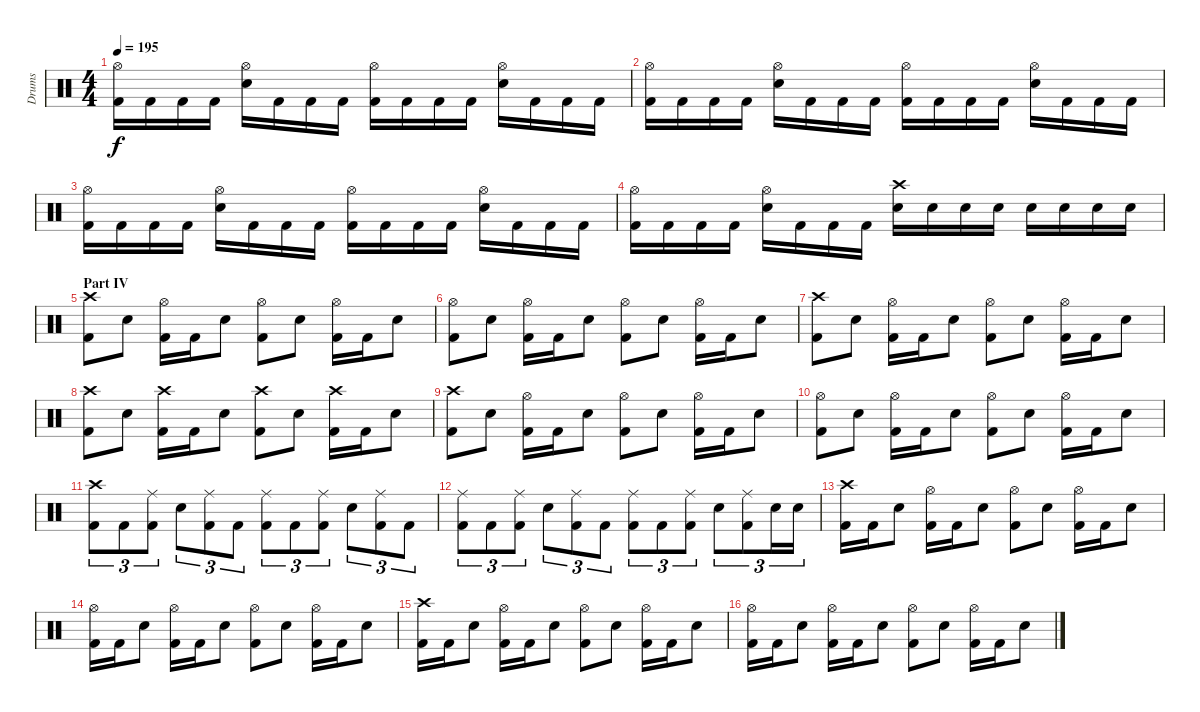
\track ("Drums" "Drums") {instrument percussion}
\staff {score}
\articulation defaults
\ts (4 4)
\tempo 195
\clef neutral
\ks c
("Hi-Hat (open)" "Kick (hit) 2").16{dy f} "Kick (hit) 2".16 "Kick (hit) 2".16 "Kick (hit) 2".16 ("Hi-Hat (open)" "Snare (hit) 2").16 "Kick (hit) 2".16 "Kick (hit) 2".16 "Kick (hit) 2".16 ("Hi-Hat (open)" "Kick (hit) 2").16 "Kick (hit) 2".16 "Kick (hit) 2".16 "Kick (hit) 2".16 ("Hi-Hat (open)" "Snare (hit) 2").16 "Kick (hit) 2".16 "Kick (hit) 2".16 "Kick (hit) 2".16 |
("Hi-Hat (open)" "Kick (hit) 2").16 "Kick (hit) 2".16 "Kick (hit) 2".16 "Kick (hit) 2".16 ("Hi-Hat (open)" "Snare (hit) 2").16 "Kick (hit) 2".16 "Kick (hit) 2".16 "Kick (hit) 2".16 ("Hi-Hat (open)" "Kick (hit) 2").16 "Kick (hit) 2".16 "Kick (hit) 2".16 "Kick (hit) 2".16 ("Hi-Hat (open)" "Snare (hit) 2").16 "Kick (hit) 2".16 "Kick (hit) 2".16 "Kick (hit) 2".16 |
("Hi-Hat (open)" "Kick (hit) 2").16 "Kick (hit) 2".16 "Kick (hit) 2".16 "Kick (hit) 2".16 ("Hi-Hat (open)" "Snare (hit) 2").16 "Kick (hit) 2".16 "Kick (hit) 2".16 "Kick (hit) 2".16 ("Hi-Hat (open)" "Kick (hit) 2").16 "Kick (hit) 2".16 "Kick (hit) 2".16 "Kick (hit) 2".16 ("Hi-Hat (open)" "Snare (hit) 2").16 "Kick (hit) 2".16 "Kick (hit) 2".16 "Kick (hit) 2".16 |
("Hi-Hat (open)" "Kick (hit) 2").16 "Kick (hit) 2".16 "Kick (hit) 2".16 "Kick (hit) 2".16 ("Hi-Hat (open)" "Snare (hit) 2").16 "Kick (hit) 2".16 "Kick (hit) 2".16 "Kick (hit) 2".16 ("Crash high (hit)" "Snare (hit) 2").16 "Snare (hit) 2".16 "Snare (hit) 2".16 "Snare (hit) 2".16 "Snare (hit) 2".16 "Snare (hit) 2".16 "Snare (hit) 2".16 "Snare (hit) 2".16 |
\section ("" "Part IV")
("Crash high (hit)" "Kick (hit) 2").8 "Snare (hit) 2".8 ("Hi-Hat (open)" "Kick (hit) 2").16 "Kick (hit) 2".16 "Snare (hit) 2".8 ("Hi-Hat (open)" "Kick (hit) 2").8 "Snare (hit) 2".8 ("Hi-Hat (open)" "Kick (hit) 2").16 "Kick (hit) 2".16 "Snare (hit) 2".8 |
("Hi-Hat (open)" "Kick (hit) 2").8 "Snare (hit) 2".8 ("Hi-Hat (open)" "Kick (hit) 2").16 "Kick (hit) 2".16 "Snare (hit) 2".8 ("Hi-Hat (open)" "Kick (hit) 2").8 "Snare (hit) 2".8 ("Hi-Hat (open)" "Kick (hit) 2").16 "Kick (hit) 2".16 "Snare (hit) 2".8 |
("Crash high (hit)" "Kick (hit) 2").8 "Snare (hit) 2".8 ("Hi-Hat (open)" "Kick (hit) 2").16 "Kick (hit) 2".16 "Snare (hit) 2".8 ("Hi-Hat (open)" "Kick (hit) 2").8 "Snare (hit) 2".8 ("Hi-Hat (open)" "Kick (hit) 2").16 "Kick (hit) 2".16 "Snare (hit) 2".8 |
("Crash high (hit)" "Kick (hit) 2").8 "Snare (hit) 2".8 ("Crash high (hit)" "Kick (hit) 2").16 "Kick (hit) 2".16 "Snare (hit) 2".8 ("Crash high (hit)" "Kick (hit) 2").8 "Snare (hit) 2".8 ("Crash high (hit)" "Kick (hit) 2").16 "Kick (hit) 2".16 "Snare (hit) 2".8 |
("Crash high (hit)" "Kick (hit) 2").8 "Snare (hit) 2".8 ("Hi-Hat (open)" "Kick (hit) 2").16 "Kick (hit) 2".16 "Snare (hit) 2".8 ("Hi-Hat (open)" "Kick (hit) 2").8 "Snare (hit) 2".8 ("Hi-Hat (open)" "Kick (hit) 2").16 "Kick (hit) 2".16 "Snare (hit) 2".8 |
("Hi-Hat (open)" "Kick (hit) 2").8 "Snare (hit) 2".8 ("Hi-Hat (open)" "Kick (hit) 2").16 "Kick (hit) 2".16 "Snare (hit) 2".8 ("Hi-Hat (open)" "Kick (hit) 2").8 "Snare (hit) 2".8 ("Hi-Hat (open)" "Kick (hit) 2").16 "Kick (hit) 2".16 "Snare (hit) 2".8 |
("Crash high (hit)" "Kick (hit) 2").8{tu (3 2)} "Kick (hit) 2".8{tu (3 2)} ("Ride (middle)" "Kick (hit) 2").8{tu (3 2)} "Snare (hit) 2".8{tu (3 2)} ("Ride (middle)" "Kick (hit) 2").8{tu (3 2)} "Kick (hit) 2".8{tu (3 2)} ("Ride (middle)" "Kick (hit) 2").8{tu (3 2)} "Kick (hit) 2".8{tu (3 2)} ("Ride (middle)" "Kick (hit) 2").8{tu (3 2)} "Snare (hit) 2".8{tu (3 2)} ("Ride (middle)" "Kick (hit) 2").8{tu (3 2)} "Kick (hit) 2".8{tu (3 2)} |
("Ride (middle)" "Kick (hit) 2").8{tu (3 2)} "Kick (hit) 2".8{tu (3 2)} ("Ride (middle)" "Kick (hit) 2").8{tu (3 2)} "Snare (hit) 2".8{tu (3 2)} ("Ride (middle)" "Kick (hit) 2").8{tu (3 2)} "Kick (hit) 2".8{tu (3 2)} ("Ride (middle)" "Kick (hit) 2").8{tu (3 2)} "Kick (hit) 2".8{tu (3 2)} ("Ride (middle)" "Kick (hit) 2").8{tu (3 2)} "Snare (hit) 2".8{tu (3 2)} ("Ride (middle)" "Kick (hit) 2").8{tu (3 2)} "Snare (hit) 2".16{tu (3 2)} "Snare (hit) 2".16{tu (3 2)} |
("Crash high (hit)" "Kick (hit) 2").16 "Kick (hit) 2".16 "Snare (hit) 2".8 ("Hi-Hat (open)" "Kick (hit) 2").16 "Kick (hit) 2".16 "Snare (hit) 2".8 ("Hi-Hat (open)" "Kick (hit) 2").8 "Snare (hit) 2".8 ("Hi-Hat (open)" "Kick (hit) 2").16 "Kick (hit) 2".16 "Snare (hit) 2".8 |
("Hi-Hat (open)" "Kick (hit) 2").16 "Kick (hit) 2".16 "Snare (hit) 2".8 ("Hi-Hat (open)" "Kick (hit) 2").16 "Kick (hit) 2".16 "Snare (hit) 2".8 ("Hi-Hat (open)" "Kick (hit) 2").8 "Snare (hit) 2".8 ("Hi-Hat (open)" "Kick (hit) 2").16 "Kick (hit) 2".16 "Snare (hit) 2".8 |
("Crash high (hit)" "Kick (hit) 2").16 "Kick (hit) 2".16 "Snare (hit) 2".8 ("Hi-Hat (open)" "Kick (hit) 2").16 "Kick (hit) 2".16 "Snare (hit) 2".8 ("Hi-Hat (open)" "Kick (hit) 2").8 "Snare (hit) 2".8 ("Hi-Hat (open)" "Kick (hit) 2").16 "Kick (hit) 2".16 "Snare (hit) 2".8 |
("Hi-Hat (open)" "Kick (hit) 2").16 "Kick (hit) 2".16 "Snare (hit) 2".8 ("Hi-Hat (open)" "Kick (hit) 2").16 "Kick (hit) 2".16 "Snare (hit) 2".8 ("Hi-Hat (open)" "Kick (hit) 2").8 "Snare (hit) 2".8 ("Hi-Hat (open)" "Kick (hit) 2").16 "Kick (hit) 2".16 "Snare (hit) 2".8
